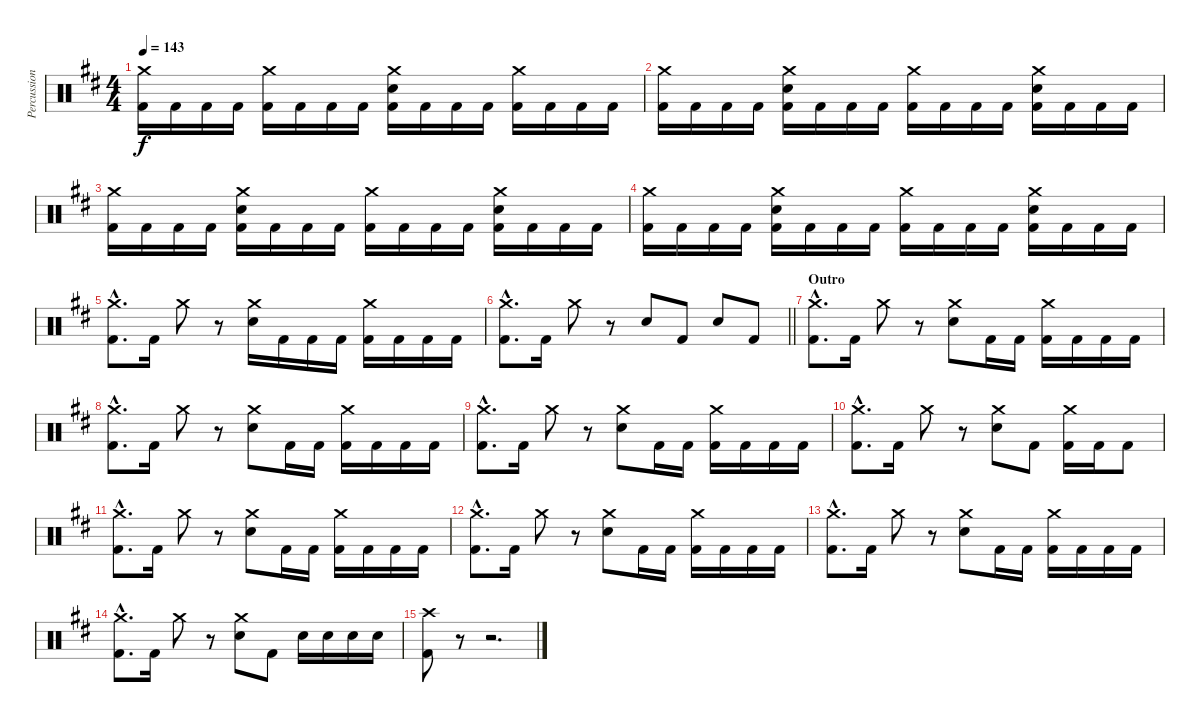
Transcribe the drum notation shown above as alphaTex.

\track ("Percussion" "Percussion") {instrument percussion}
\staff {score}
\articulation defaults
\ts (4 4)
\tempo 143
\clef neutral
\ks d
("Crash medium (hit)" "Kick (hit) 2").16{dy f} "Kick (hit) 2".16 "Kick (hit) 2".16 "Kick (hit) 2".16 ("Crash medium (hit)" "Kick (hit) 2").16 "Kick (hit) 2".16 "Kick (hit) 2".16 "Kick (hit) 2".16 ("Crash medium (hit)" "Snare (hit) 2" "Kick (hit) 2").16 "Kick (hit) 2".16 "Kick (hit) 2".16 "Kick (hit) 2".16 ("Crash medium (hit)" "Kick (hit) 2").16 "Kick (hit) 2".16 "Kick (hit) 2".16 "Kick (hit) 2".16 |
("Crash medium (hit)" "Kick (hit) 2").16 "Kick (hit) 2".16 "Kick (hit) 2".16 "Kick (hit) 2".16 ("Crash medium (hit)" "Snare (hit) 2" "Kick (hit) 2").16 "Kick (hit) 2".16 "Kick (hit) 2".16 "Kick (hit) 2".16 ("Crash medium (hit)" "Kick (hit) 2").16 "Kick (hit) 2".16 "Kick (hit) 2".16 "Kick (hit) 2".16 ("Crash medium (hit)" "Snare (hit) 2" "Kick (hit) 2").16 "Kick (hit) 2".16 "Kick (hit) 2".16 "Kick (hit) 2".16 |
("Crash medium (hit)" "Kick (hit) 2").16 "Kick (hit) 2".16 "Kick (hit) 2".16 "Kick (hit) 2".16 ("Crash medium (hit)" "Snare (hit) 2" "Kick (hit) 2").16 "Kick (hit) 2".16 "Kick (hit) 2".16 "Kick (hit) 2".16 ("Crash medium (hit)" "Kick (hit) 2").16 "Kick (hit) 2".16 "Kick (hit) 2".16 "Kick (hit) 2".16 ("Crash medium (hit)" "Snare (hit) 2" "Kick (hit) 2").16 "Kick (hit) 2".16 "Kick (hit) 2".16 "Kick (hit) 2".16 |
("Crash medium (hit)" "Kick (hit) 2").16 "Kick (hit) 2".16 "Kick (hit) 2".16 "Kick (hit) 2".16 ("Crash medium (hit)" "Snare (hit) 2" "Kick (hit) 2").16 "Kick (hit) 2".16 "Kick (hit) 2".16 "Kick (hit) 2".16 ("Crash medium (hit)" "Kick (hit) 2").16 "Kick (hit) 2".16 "Kick (hit) 2".16 "Kick (hit) 2".16 ("Crash medium (hit)" "Snare (hit) 2" "Kick (hit) 2").16 "Kick (hit) 2".16 "Kick (hit) 2".16 "Kick (hit) 2".16 |
("Crash medium (hit)"{hac} "Kick (hit) 2"{hac}).8{d} "Kick (hit) 2".16 "Crash medium (hit)".8 r.8 ("Crash medium (hit)" "Snare (hit) 2").16 "Kick (hit) 2".16 "Kick (hit) 2".16 "Kick (hit) 2".16 ("Crash medium (hit)" "Kick (hit) 2").16 "Kick (hit) 2".16 "Kick (hit) 2".16 "Kick (hit) 2".16 |
\barLineRight lightlight
("Crash medium (hit)"{hac} "Kick (hit) 2"{hac}).8{d} "Kick (hit) 2".16 "Crash medium (hit)".8 r.8 "Snare (hit) 2".8 "Kick (hit) 2".8 "Snare (hit) 2".8 "Kick (hit) 2".8 |
\section ("" "Outro")
("Crash medium (hit)"{hac} "Kick (hit) 2"{hac}).8{d} "Kick (hit) 2".16 "Crash medium (hit)".8 r.8 ("Crash medium (hit)" "Snare (hit) 2").8 "Kick (hit) 2".16 "Kick (hit) 2".16 ("Crash medium (hit)" "Kick (hit) 2").16 "Kick (hit) 2".16 "Kick (hit) 2".16 "Kick (hit) 2".16 |
("Crash medium (hit)"{hac} "Kick (hit) 2"{hac}).8{d} "Kick (hit) 2".16 "Crash medium (hit)".8 r.8 ("Crash medium (hit)" "Snare (hit) 2").8 "Kick (hit) 2".16 "Kick (hit) 2".16 ("Crash medium (hit)" "Kick (hit) 2").16 "Kick (hit) 2".16 "Kick (hit) 2".16 "Kick (hit) 2".16 |
("Crash medium (hit)"{hac} "Kick (hit) 2"{hac}).8{d} "Kick (hit) 2".16 "Crash medium (hit)".8 r.8 ("Crash medium (hit)" "Snare (hit) 2").8 "Kick (hit) 2".16 "Kick (hit) 2".16 ("Crash medium (hit)" "Kick (hit) 2").16 "Kick (hit) 2".16 "Kick (hit) 2".16 "Kick (hit) 2".16 |
("Crash medium (hit)"{hac} "Kick (hit) 2"{hac}).8{d} "Kick (hit) 2".16 "Crash medium (hit)".8 r.8 ("Crash medium (hit)" "Snare (hit) 2").8 "Kick (hit) 2".8 ("Crash medium (hit)" "Kick (hit) 2").16 "Kick (hit) 2".16 "Kick (hit) 2".8 |
("Crash medium (hit)"{hac} "Kick (hit) 2"{hac}).8{d} "Kick (hit) 2".16 "Crash medium (hit)".8 r.8 ("Crash medium (hit)" "Snare (hit) 2").8 "Kick (hit) 2".16 "Kick (hit) 2".16 ("Crash medium (hit)" "Kick (hit) 2").16 "Kick (hit) 2".16 "Kick (hit) 2".16 "Kick (hit) 2".16 |
("Crash medium (hit)"{hac} "Kick (hit) 2"{hac}).8{d} "Kick (hit) 2".16 "Crash medium (hit)".8 r.8 ("Crash medium (hit)" "Snare (hit) 2").8 "Kick (hit) 2".16 "Kick (hit) 2".16 ("Crash medium (hit)" "Kick (hit) 2").16 "Kick (hit) 2".16 "Kick (hit) 2".16 "Kick (hit) 2".16 |
("Crash medium (hit)"{hac} "Kick (hit) 2"{hac}).8{d} "Kick (hit) 2".16 "Crash medium (hit)".8 r.8 ("Crash medium (hit)" "Snare (hit) 2").8 "Kick (hit) 2".16 "Kick (hit) 2".16 ("Crash medium (hit)" "Kick (hit) 2").16 "Kick (hit) 2".16 "Kick (hit) 2".16 "Kick (hit) 2".16 |
("Crash medium (hit)"{hac} "Kick (hit) 2"{hac}).8{d} "Kick (hit) 2".16 "Crash medium (hit)".8 r.8 ("Crash medium (hit)" "Snare (hit) 2").8 "Kick (hit) 2".8 "Snare (hit) 2".16 "Snare (hit) 2".16 "Snare (hit) 2".16 "Snare (hit) 2".16 |
("Crash high (hit)" "Kick (hit) 2").8 r.8 r.2{d}
